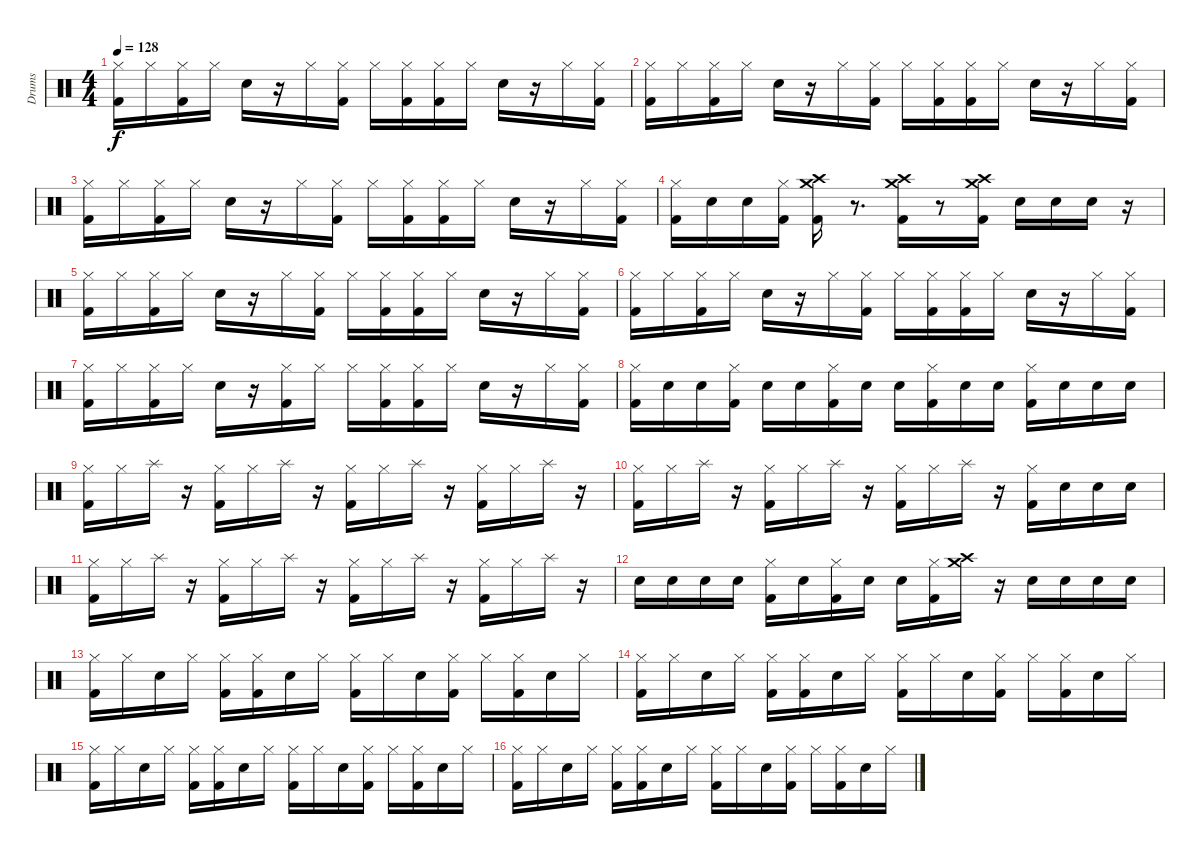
\track ("Drums" "Drums") {instrument percussion}
\staff {score}
\articulation defaults
\ts (4 4)
\tempo 128
\clef neutral
\ks c
("Hi-Hat (closed)" "Kick (hit) 2").16{dy f} "Hi-Hat (closed)".16 ("Hi-Hat (closed)" "Kick (hit) 2").16 "Hi-Hat (closed)".16 "Snare (hit) 2".16 r.16 "Hi-Hat (closed)".16 ("Hi-Hat (closed)" "Kick (hit) 2").16 "Hi-Hat (closed)".16 ("Hi-Hat (closed)" "Kick (hit) 2").16 ("Hi-Hat (closed)" "Kick (hit) 2").16 "Hi-Hat (closed)".16 "Snare (hit) 2".16 r.16 "Hi-Hat (closed)".16 ("Hi-Hat (closed)" "Kick (hit) 2").16 |
("Hi-Hat (closed)" "Kick (hit) 2").16 "Hi-Hat (closed)".16 ("Hi-Hat (closed)" "Kick (hit) 2").16 "Hi-Hat (closed)".16 "Snare (hit) 2".16 r.16 "Hi-Hat (closed)".16 ("Hi-Hat (closed)" "Kick (hit) 2").16 "Hi-Hat (closed)".16 ("Hi-Hat (closed)" "Kick (hit) 2").16 ("Hi-Hat (closed)" "Kick (hit) 2").16 "Hi-Hat (closed)".16 "Snare (hit) 2".16 r.16 "Hi-Hat (closed)".16 ("Hi-Hat (closed)" "Kick (hit) 2").16 |
("Hi-Hat (closed)" "Kick (hit) 2").16 "Hi-Hat (closed)".16 ("Hi-Hat (closed)" "Kick (hit) 2").16 "Hi-Hat (closed)".16 "Snare (hit) 2".16 r.16 "Hi-Hat (closed)".16 ("Hi-Hat (closed)" "Kick (hit) 2").16 "Hi-Hat (closed)".16 ("Hi-Hat (closed)" "Kick (hit) 2").16 ("Hi-Hat (closed)" "Kick (hit) 2").16 "Hi-Hat (closed)".16 "Snare (hit) 2".16 r.16 "Hi-Hat (closed)".16 ("Hi-Hat (closed)" "Kick (hit) 2").16 |
("Hi-Hat (closed)" "Kick (hit) 2").16 "Snare (hit) 2".16 "Snare (hit) 2".16 ("Hi-Hat (closed)" "Kick (hit) 2").16 ("Crash medium (hit)" "Crash high (hit)" "Kick (hit) 2").16 r.8{d} ("Crash medium (hit)" "Crash high (hit)" "Kick (hit) 2").16 r.8 ("Crash medium (hit)" "Crash high (hit)" "Kick (hit) 2").16 "Snare (hit) 2".16 "Snare (hit) 2".16 "Snare (hit) 2".16 r.16 |
("Hi-Hat (closed)" "Kick (hit) 2").16 "Hi-Hat (closed)".16 ("Hi-Hat (closed)" "Kick (hit) 2").16 "Hi-Hat (closed)".16 "Snare (hit) 2".16 r.16 "Hi-Hat (closed)".16 ("Hi-Hat (closed)" "Kick (hit) 2").16 "Hi-Hat (closed)".16 ("Hi-Hat (closed)" "Kick (hit) 2").16 ("Hi-Hat (closed)" "Kick (hit) 2").16 "Hi-Hat (closed)".16 "Snare (hit) 2".16 r.16 "Hi-Hat (closed)".16 ("Hi-Hat (closed)" "Kick (hit) 2").16 |
("Hi-Hat (closed)" "Kick (hit) 2").16 "Hi-Hat (closed)".16 ("Hi-Hat (closed)" "Kick (hit) 2").16 "Hi-Hat (closed)".16 "Snare (hit) 2".16 r.16 "Hi-Hat (closed)".16 ("Hi-Hat (closed)" "Kick (hit) 2").16 "Hi-Hat (closed)".16 ("Hi-Hat (closed)" "Kick (hit) 2").16 ("Hi-Hat (closed)" "Kick (hit) 2").16 "Hi-Hat (closed)".16 "Snare (hit) 2".16 r.16 "Hi-Hat (closed)".16 ("Hi-Hat (closed)" "Kick (hit) 2").16 |
("Hi-Hat (closed)" "Kick (hit) 2").16 "Hi-Hat (closed)".16 ("Hi-Hat (closed)" "Kick (hit) 2").16 "Hi-Hat (closed)".16 "Snare (hit) 2".16 r.16 ("Hi-Hat (closed)" "Kick (hit) 2").16 "Hi-Hat (closed)".16 "Hi-Hat (closed)".16 ("Hi-Hat (closed)" "Kick (hit) 2").16 ("Hi-Hat (closed)" "Kick (hit) 2").16 "Hi-Hat (closed)".16 "Snare (hit) 2".16 r.16 "Hi-Hat (closed)".16 ("Hi-Hat (closed)" "Kick (hit) 2").16 |
("Hi-Hat (closed)" "Kick (hit) 2").16 "Snare (hit) 2".16 "Snare (hit) 2".16 ("Hi-Hat (closed)" "Kick (hit) 2").16 "Snare (hit) 2".16 "Snare (hit) 2".16 ("Hi-Hat (closed)" "Kick (hit) 2").16 "Snare (hit) 2".16 "Snare (hit) 2".16 ("Hi-Hat (closed)" "Kick (hit) 2").16 "Snare (hit) 2".16 "Snare (hit) 2".16 ("Hi-Hat (closed)" "Kick (hit) 2").16 "Snare (hit) 2".16 "Snare (hit) 2".16 "Snare (hit) 2".16 |
("Hi-Hat (closed)" "Kick (hit) 2").16 "Hi-Hat (closed)".16 "Splash (hit)".16 r.16 ("Hi-Hat (closed)" "Kick (hit) 2").16 "Hi-Hat (closed)".16 "Splash (hit)".16 r.16 ("Hi-Hat (closed)" "Kick (hit) 2").16 "Hi-Hat (closed)".16 "Splash (hit)".16 r.16 ("Hi-Hat (closed)" "Kick (hit) 2").16 "Hi-Hat (closed)".16 "Splash (hit)".16 r.16 |
("Hi-Hat (closed)" "Kick (hit) 2").16 "Hi-Hat (closed)".16 "Splash (hit)".16 r.16 ("Hi-Hat (closed)" "Kick (hit) 2").16 "Hi-Hat (closed)".16 "Splash (hit)".16 r.16 ("Hi-Hat (closed)" "Kick (hit) 2").16 "Hi-Hat (closed)".16 "Splash (hit)".16 r.16 ("Hi-Hat (closed)" "Kick (hit) 2").16 "Snare (hit) 2".16 "Snare (hit) 2".16 "Snare (hit) 2".16 |
("Hi-Hat (closed)" "Kick (hit) 2").16 "Hi-Hat (closed)".16 "Splash (hit)".16 r.16 ("Hi-Hat (closed)" "Kick (hit) 2").16 "Hi-Hat (closed)".16 "Splash (hit)".16 r.16 ("Hi-Hat (closed)" "Kick (hit) 2").16 "Hi-Hat (closed)".16 "Splash (hit)".16 r.16 ("Hi-Hat (closed)" "Kick (hit) 2").16 "Hi-Hat (closed)".16 "Splash (hit)".16 r.16 |
"Snare (hit) 2".16 "Snare (hit) 2".16 "Snare (hit) 2".16 "Snare (hit) 2".16 ("Hi-Hat (closed)" "Kick (hit) 2").16 "Snare (hit) 2".16 ("Hi-Hat (closed)" "Kick (hit) 2").16 "Snare (hit) 2".16 "Snare (hit) 2".16 ("Hi-Hat (closed)" "Kick (hit) 2").16 ("Crash medium (hit)" "Crash high (hit)").16 r.16 "Snare (hit) 2".16 "Snare (hit) 2".16 "Snare (hit) 2".16 "Snare (hit) 2".16 |
("Hi-Hat (closed)" "Kick (hit) 2").16 "Hi-Hat (closed)".16 "Snare (hit) 2".16 "Hi-Hat (closed)".16 ("Hi-Hat (closed)" "Kick (hit) 2").16 ("Hi-Hat (closed)" "Kick (hit) 2").16 "Snare (hit) 2".16 "Hi-Hat (closed)".16 ("Hi-Hat (closed)" "Kick (hit) 2").16 "Hi-Hat (closed)".16 "Snare (hit) 2".16 ("Hi-Hat (closed)" "Kick (hit) 2").16 "Hi-Hat (closed)".16 ("Hi-Hat (closed)" "Kick (hit) 2").16 "Snare (hit) 2".16 "Hi-Hat (closed)".16 |
("Hi-Hat (closed)" "Kick (hit) 2").16 "Hi-Hat (closed)".16 "Snare (hit) 2".16 "Hi-Hat (closed)".16 ("Hi-Hat (closed)" "Kick (hit) 2").16 ("Hi-Hat (closed)" "Kick (hit) 2").16 "Snare (hit) 2".16 "Hi-Hat (closed)".16 ("Hi-Hat (closed)" "Kick (hit) 2").16 "Hi-Hat (closed)".16 "Snare (hit) 2".16 ("Hi-Hat (closed)" "Kick (hit) 2").16 "Hi-Hat (closed)".16 ("Hi-Hat (closed)" "Kick (hit) 2").16 "Snare (hit) 2".16 "Hi-Hat (closed)".16 |
("Hi-Hat (closed)" "Kick (hit) 2").16 "Hi-Hat (closed)".16 "Snare (hit) 2".16 "Hi-Hat (closed)".16 ("Hi-Hat (closed)" "Kick (hit) 2").16 ("Hi-Hat (closed)" "Kick (hit) 2").16 "Snare (hit) 2".16 "Hi-Hat (closed)".16 ("Hi-Hat (closed)" "Kick (hit) 2").16 "Hi-Hat (closed)".16 "Snare (hit) 2".16 ("Hi-Hat (closed)" "Kick (hit) 2").16 "Hi-Hat (closed)".16 ("Hi-Hat (closed)" "Kick (hit) 2").16 "Snare (hit) 2".16 "Hi-Hat (closed)".16 |
("Hi-Hat (closed)" "Kick (hit) 2").16 "Hi-Hat (closed)".16 "Snare (hit) 2".16 "Hi-Hat (closed)".16 ("Hi-Hat (closed)" "Kick (hit) 2").16 ("Hi-Hat (closed)" "Kick (hit) 2").16 "Snare (hit) 2".16 "Hi-Hat (closed)".16 ("Hi-Hat (closed)" "Kick (hit) 2").16 "Hi-Hat (closed)".16 "Snare (hit) 2".16 ("Hi-Hat (closed)" "Kick (hit) 2").16 "Hi-Hat (closed)".16 ("Hi-Hat (closed)" "Kick (hit) 2").16 "Snare (hit) 2".16 "Hi-Hat (closed)".16
